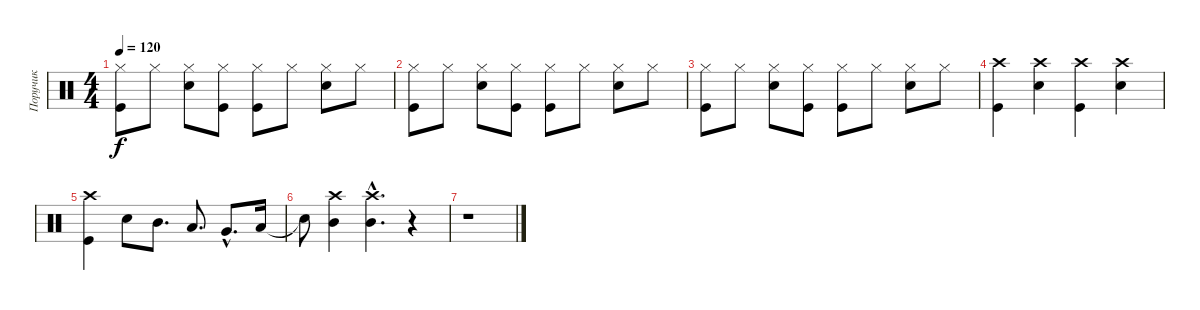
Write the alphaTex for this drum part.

\track ("Поручик" "Поручик") {instrument percussion}
\staff {score}
\articulation defaults
\ts (4 4)
\tempo 120
\clef neutral
\ks c
("Hi-Hat (closed)" "Kick (hit)").8{dy f} "Hi-Hat (closed)".8 ("Hi-Hat (closed)" "Snare (hit) 2").8 ("Hi-Hat (closed)" "Kick (hit)").8 ("Hi-Hat (closed)" "Kick (hit)").8 "Hi-Hat (closed)".8 ("Hi-Hat (closed)" "Snare (hit) 2").8 "Hi-Hat (closed)".8 |
("Hi-Hat (closed)" "Kick (hit)").8 "Hi-Hat (closed)".8 ("Hi-Hat (closed)" "Snare (hit) 2").8 ("Hi-Hat (closed)" "Kick (hit)").8 ("Hi-Hat (closed)" "Kick (hit)").8 "Hi-Hat (closed)".8 ("Hi-Hat (closed)" "Snare (hit) 2").8 "Hi-Hat (closed)".8 |
("Hi-Hat (closed)" "Kick (hit)").8 "Hi-Hat (closed)".8 ("Hi-Hat (closed)" "Snare (hit) 2").8 ("Hi-Hat (closed)" "Kick (hit)").8 ("Hi-Hat (closed)" "Kick (hit)").8 "Hi-Hat (closed)".8 ("Hi-Hat (closed)" "Snare (hit) 2").8 "Hi-Hat (closed)".8 |
("Crash high (hit)" "Kick (hit)").4 ("Crash high (hit)" "Snare (hit) 2").4 ("Crash high (hit)" "Kick (hit)").4 ("Crash high (hit)" "Snare (hit) 2").4 |
("Crash high (hit)" "Kick (hit)").4 "Snare (hit) 2".8 "Mid Tom (hit)".8{d} "Low Tom (hit)".8{d} "Very Low Tom (hit)"{hac}.8{d} "Low Floor Tom (hit)".16 |
"Snare (hit)"{t}.8 ("Mid Tom (hit)" "Crash high (hit)").4 ("Mid Tom (hit)"{hac} "Crash high (hit)"{hac}).4{d} r.4 |
r.1
